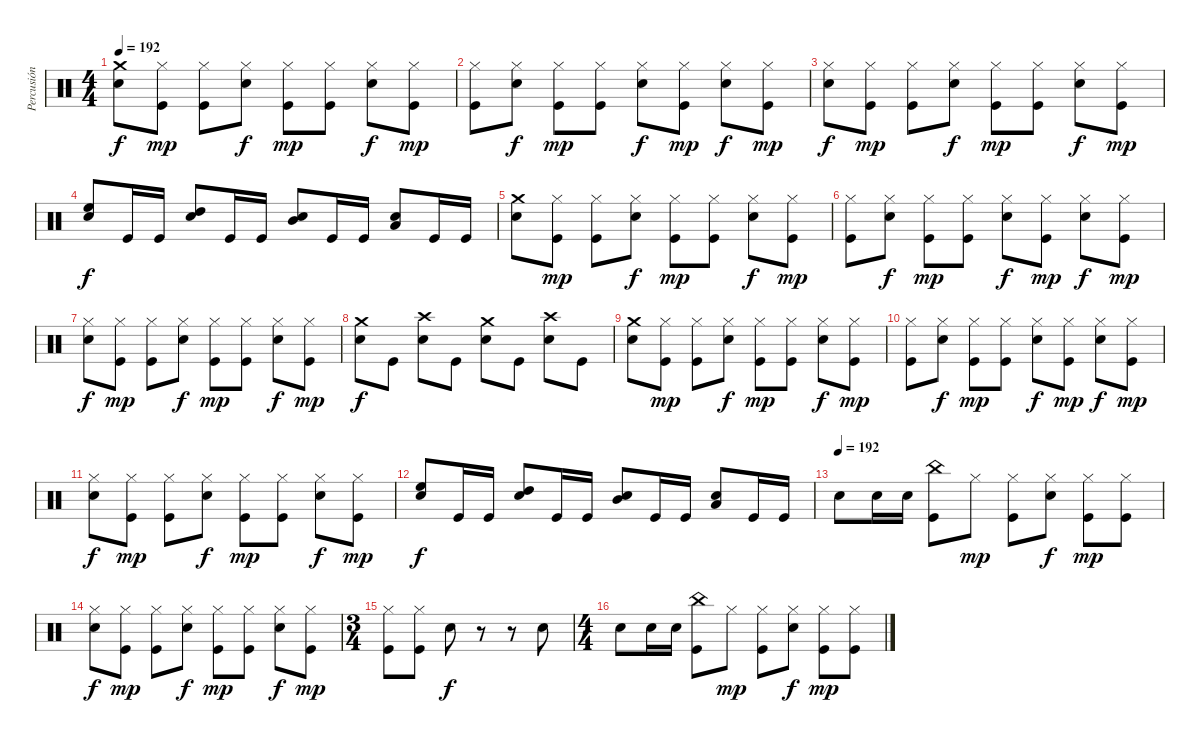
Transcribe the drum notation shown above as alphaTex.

\track ("Percusión" "Percusión") {instrument percussion}
\staff {score}
\articulation defaults
\ts (4 4)
\tempo 192
\clef neutral
\ks c
("Crash medium (hit)" "Electric Snare (hit)").8{dy f} ("Hi-Hat (closed)" "Kick (hit)").8{dy mp} ("Hi-Hat (closed)" "Kick (hit)").8 ("Hi-Hat (closed)" "Electric Snare (hit)").8{dy f} ("Hi-Hat (closed)" "Kick (hit)").8{dy mp} ("Hi-Hat (closed)" "Kick (hit)").8 ("Hi-Hat (closed)" "Electric Snare (hit)").8{dy f} ("Hi-Hat (closed)" "Kick (hit)").8{dy mp} |
("Hi-Hat (closed)" "Kick (hit)").8 ("Hi-Hat (closed)" "Electric Snare (hit)").8{dy f} ("Hi-Hat (closed)" "Kick (hit)").8{dy mp} ("Hi-Hat (closed)" "Kick (hit)").8 ("Hi-Hat (closed)" "Electric Snare (hit)").8{dy f} ("Hi-Hat (closed)" "Kick (hit)").8{dy mp} ("Hi-Hat (closed)" "Electric Snare (hit)").8{dy f} ("Hi-Hat (closed)" "Kick (hit)").8{dy mp} |
("Hi-Hat (closed)" "Electric Snare (hit)").8{dy f} ("Hi-Hat (closed)" "Kick (hit)").8{dy mp} ("Hi-Hat (closed)" "Kick (hit)").8 ("Hi-Hat (closed)" "Electric Snare (hit)").8{dy f} ("Hi-Hat (closed)" "Kick (hit)").8{dy mp} ("Hi-Hat (closed)" "Kick (hit)").8 ("Hi-Hat (closed)" "Electric Snare (hit)").8{dy f} ("Hi-Hat (closed)" "Kick (hit)").8{dy mp} |
("High Floor Tom (hit)" "Electric Snare (hit)").8{dy f} "Kick (hit)".16 "Kick (hit)".16 ("High Tom (hit)" "Electric Snare (hit)").8 "Kick (hit)".16 "Kick (hit)".16 ("Electric Snare (hit)" "Mid Tom (hit)").8 "Kick (hit)".16 "Kick (hit)".16 ("Electric Snare (hit)" "Low Tom (hit)").8 "Kick (hit)".16 "Kick (hit)".16 |
("Crash medium (hit)" "Electric Snare (hit)").8 ("Hi-Hat (closed)" "Kick (hit)").8{dy mp} ("Hi-Hat (closed)" "Kick (hit)").8 ("Hi-Hat (closed)" "Electric Snare (hit)").8{dy f} ("Hi-Hat (closed)" "Kick (hit)").8{dy mp} ("Hi-Hat (closed)" "Kick (hit)").8 ("Hi-Hat (closed)" "Electric Snare (hit)").8{dy f} ("Hi-Hat (closed)" "Kick (hit)").8{dy mp} |
("Hi-Hat (closed)" "Kick (hit)").8 ("Hi-Hat (closed)" "Electric Snare (hit)").8{dy f} ("Hi-Hat (closed)" "Kick (hit)").8{dy mp} ("Hi-Hat (closed)" "Kick (hit)").8 ("Hi-Hat (closed)" "Electric Snare (hit)").8{dy f} ("Hi-Hat (closed)" "Kick (hit)").8{dy mp} ("Hi-Hat (closed)" "Electric Snare (hit)").8{dy f} ("Hi-Hat (closed)" "Kick (hit)").8{dy mp} |
("Hi-Hat (closed)" "Electric Snare (hit)").8{dy f} ("Hi-Hat (closed)" "Kick (hit)").8{dy mp} ("Hi-Hat (closed)" "Kick (hit)").8 ("Hi-Hat (closed)" "Electric Snare (hit)").8{dy f} ("Hi-Hat (closed)" "Kick (hit)").8{dy mp} ("Hi-Hat (closed)" "Kick (hit)").8 ("Hi-Hat (closed)" "Electric Snare (hit)").8{dy f} ("Hi-Hat (closed)" "Kick (hit)").8{dy mp} |
("Crash medium (hit)" "Electric Snare (hit)").8{dy f} "Kick (hit)".8 ("Crash high (hit)" "Electric Snare (hit)").8 "Kick (hit)".8 ("Crash medium (hit)" "Electric Snare (hit)").8 "Kick (hit)".8 ("Crash high (hit)" "Electric Snare (hit)").8 "Kick (hit)".8 |
("Crash medium (hit)" "Electric Snare (hit)").8 ("Hi-Hat (closed)" "Kick (hit)").8{dy mp} ("Hi-Hat (closed)" "Kick (hit)").8 ("Hi-Hat (closed)" "Electric Snare (hit)").8{dy f} ("Hi-Hat (closed)" "Kick (hit)").8{dy mp} ("Hi-Hat (closed)" "Kick (hit)").8 ("Hi-Hat (closed)" "Electric Snare (hit)").8{dy f} ("Hi-Hat (closed)" "Kick (hit)").8{dy mp} |
("Hi-Hat (closed)" "Kick (hit)").8 ("Hi-Hat (closed)" "Electric Snare (hit)").8{dy f} ("Hi-Hat (closed)" "Kick (hit)").8{dy mp} ("Hi-Hat (closed)" "Kick (hit)").8 ("Hi-Hat (closed)" "Electric Snare (hit)").8{dy f} ("Hi-Hat (closed)" "Kick (hit)").8{dy mp} ("Hi-Hat (closed)" "Electric Snare (hit)").8{dy f} ("Hi-Hat (closed)" "Kick (hit)").8{dy mp} |
("Hi-Hat (closed)" "Electric Snare (hit)").8{dy f} ("Hi-Hat (closed)" "Kick (hit)").8{dy mp} ("Hi-Hat (closed)" "Kick (hit)").8 ("Hi-Hat (closed)" "Electric Snare (hit)").8{dy f} ("Hi-Hat (closed)" "Kick (hit)").8{dy mp} ("Hi-Hat (closed)" "Kick (hit)").8 ("Hi-Hat (closed)" "Electric Snare (hit)").8{dy f} ("Hi-Hat (closed)" "Kick (hit)").8{dy mp} |
("High Floor Tom (hit)" "Electric Snare (hit)").8{dy f} "Kick (hit)".16 "Kick (hit)".16 ("High Tom (hit)" "Electric Snare (hit)").8 "Kick (hit)".16 "Kick (hit)".16 ("Electric Snare (hit)" "Mid Tom (hit)").8 "Kick (hit)".16 "Kick (hit)".16 ("Electric Snare (hit)" "Low Tom (hit)").8 "Kick (hit)".16 "Kick (hit)".16 |
\tempo (192)
"Electric Snare (hit)".8 "Electric Snare (hit)".16 "Electric Snare (hit)".16 ("China (hit)" "Kick (hit)").8 "Hi-Hat (closed)".8{dy mp} ("Hi-Hat (closed)" "Kick (hit)").8 ("Hi-Hat (closed)" "Electric Snare (hit)").8{dy f} ("Hi-Hat (closed)" "Kick (hit)").8{dy mp} ("Hi-Hat (closed)" "Kick (hit)").8 |
("Hi-Hat (closed)" "Electric Snare (hit)").8{dy f} ("Hi-Hat (closed)" "Kick (hit)").8{dy mp} ("Hi-Hat (closed)" "Kick (hit)").8 ("Hi-Hat (closed)" "Electric Snare (hit)").8{dy f} ("Hi-Hat (closed)" "Kick (hit)").8{dy mp} ("Hi-Hat (closed)" "Kick (hit)").8 ("Hi-Hat (closed)" "Electric Snare (hit)").8{dy f} ("Hi-Hat (closed)" "Kick (hit)").8{dy mp} |
\ts (3 4)
("Hi-Hat (closed)" "Kick (hit)").8 ("Hi-Hat (closed)" "Kick (hit)").8 "Electric Snare (hit)".8{dy f} r.8 r.8 "Electric Snare (hit)".8 |
\ts (4 4)
"Electric Snare (hit)".8 "Electric Snare (hit)".16 "Electric Snare (hit)".16 ("China (hit)" "Kick (hit)").8 "Hi-Hat (closed)".8{dy mp} ("Hi-Hat (closed)" "Kick (hit)").8 ("Hi-Hat (closed)" "Electric Snare (hit)").8{dy f} ("Hi-Hat (closed)" "Kick (hit)").8{dy mp} ("Hi-Hat (closed)" "Kick (hit)").8
